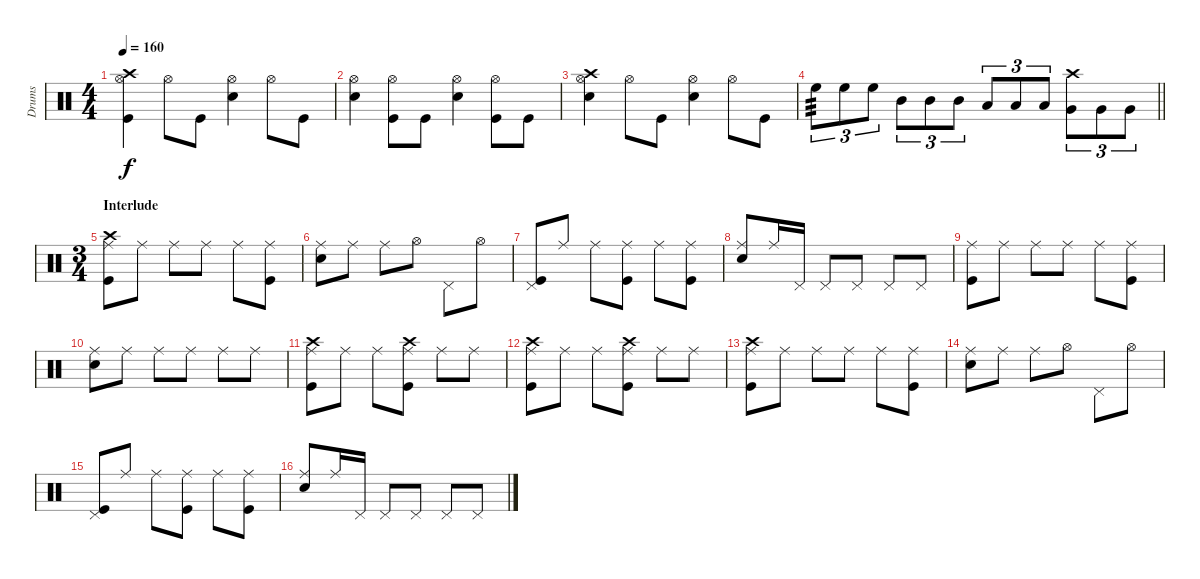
\track ("Drums" "Drums") {instrument percussion}
\staff {score}
\articulation defaults
\ts (4 4)
\tempo 160
\clef neutral
\ks c
("Hi-Hat (open)" "Crash high (hit)" "Kick (hit)").4{dy f} "Hi-Hat (open)".8 "Kick (hit)".8 ("Hi-Hat (open)" "Snare (hit) 2").4 "Hi-Hat (open)".8 "Kick (hit)".8 |
("Hi-Hat (open)" "Snare (hit) 2").4 ("Hi-Hat (open)" "Kick (hit)").8 "Kick (hit)".8 ("Hi-Hat (open)" "Snare (hit) 2").4 ("Hi-Hat (open)" "Kick (hit)").8 "Kick (hit)".8 |
("Hi-Hat (open)" "Crash high (hit)" "Snare (hit) 2").4 "Hi-Hat (open)".8 "Kick (hit)".8 ("Hi-Hat (open)" "Snare (hit) 2").4 "Hi-Hat (open)".8 "Kick (hit)".8 |
\barLineRight lightlight "High Floor Tom (hit)".8{tu (3 2) tp 3} "High Floor Tom (hit)".8{tu (3 2)} "High Floor Tom (hit)".8{tu (3 2)} "Mid Tom (hit)".8{tu (3 2)} "Mid Tom (hit)".8{tu (3 2)} "Mid Tom (hit)".8{tu (3 2)} "Low Tom (hit)".8{tu (3 2)} "Low Tom (hit)".8{tu (3 2)} "Low Tom (hit)".8{tu (3 2)}
("Crash high (hit)" "Very Low Tom (hit)").8{tu (3 2)} "Very Low Tom (hit)".8{tu (3 2)} "Very Low Tom (hit)".8{tu (3 2)} |
\ts (3 4)
\section ("" "Interlude")
("Ride (middle)" "Crash high (hit)" "Kick (hit)").8 "Ride (middle)".8 "Ride (middle)".8 "Ride (middle)".8 "Ride (middle)".8 ("Ride (middle)" "Kick (hit)").8 |
("Ride (middle)" "Snare (hit) 2").8 "Ride (middle)".8 "Ride (middle)".8 "Hi-Hat (open)".8 "Pedal Hi-Hat (hit)".8 "Hi-Hat (open)".8 |
("Pedal Hi-Hat (hit)" "Kick (hit)").8 "Ride (middle)".8 "Ride (middle)".8 ("Ride (middle)" "Kick (hit)").8 "Ride (middle)".8 ("Ride (middle)" "Kick (hit)").8 |
("Ride (middle)" "Snare (hit) 2").8 "Ride (middle)".16 "Pedal Hi-Hat (hit)".16 "Pedal Hi-Hat (hit)".8 "Pedal Hi-Hat (hit)".8 "Pedal Hi-Hat (hit)".8 "Pedal Hi-Hat (hit)".8 |
("Ride (middle)" "Kick (hit)").8 "Ride (middle)".8 "Ride (middle)".8 "Ride (middle)".8 "Ride (middle)".8 ("Ride (middle)" "Kick (hit)").8 |
("Ride (middle)" "Snare (hit) 2").8 "Ride (middle)".8 "Ride (middle)".8 "Ride (middle)".8 "Ride (middle)".8 "Ride (middle)".8 |
("Ride (middle)" "Crash high (hit)" "Kick (hit)").8 "Ride (middle)".8 "Ride (middle)".8 ("Ride (middle)" "Crash high (hit)" "Kick (hit)").8 "Ride (middle)".8 "Ride (middle)".8 |
("Ride (middle)" "Crash high (hit)" "Kick (hit)").8 "Ride (middle)".8 "Ride (middle)".8 ("Ride (middle)" "Crash high (hit)" "Kick (hit)").8 "Ride (middle)".8 "Ride (middle)".8 |
("Ride (middle)" "Crash high (hit)" "Kick (hit)").8 "Ride (middle)".8 "Ride (middle)".8 "Ride (middle)".8 "Ride (middle)".8 ("Ride (middle)" "Kick (hit)").8 |
("Ride (middle)" "Snare (hit) 2").8 "Ride (middle)".8 "Ride (middle)".8 "Hi-Hat (open)".8 "Pedal Hi-Hat (hit)".8 "Hi-Hat (open)".8 |
("Pedal Hi-Hat (hit)" "Kick (hit)").8 "Ride (middle)".8 "Ride (middle)".8 ("Ride (middle)" "Kick (hit)").8 "Ride (middle)".8 ("Ride (middle)" "Kick (hit)").8 |
("Ride (middle)" "Snare (hit) 2").8 "Ride (middle)".16 "Pedal Hi-Hat (hit)".16 "Pedal Hi-Hat (hit)".8 "Pedal Hi-Hat (hit)".8 "Pedal Hi-Hat (hit)".8 "Pedal Hi-Hat (hit)".8
